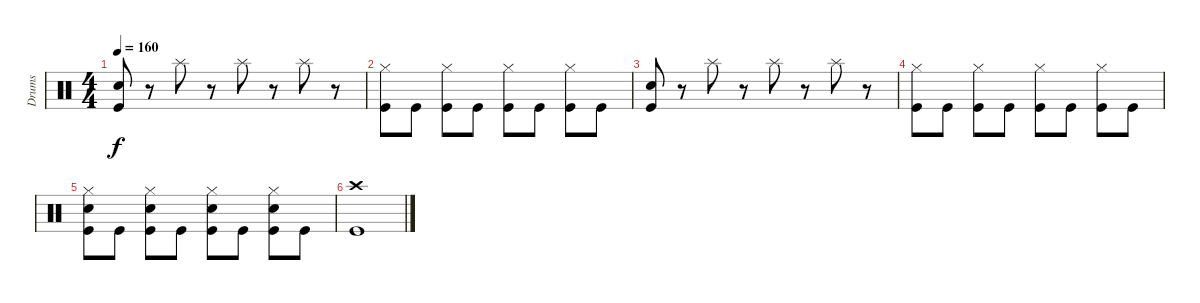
\track ("Drums" "Drums") {instrument percussion}
\staff {score}
\articulation defaults
\ts (4 4)
\tempo 160
\clef neutral
\ks c
("Electric Snare (hit)" "Kick (hit)").8{dy f} r.8 "Splash (hit)".8 r.8 "Splash (hit)".8 r.8 "Splash (hit)".8 r.8 |
("Hi-Hat (closed)" "Kick (hit)").8 "Kick (hit)".8 ("Hi-Hat (closed)" "Kick (hit)").8 "Kick (hit)".8 ("Hi-Hat (closed)" "Kick (hit)").8 "Kick (hit)".8 ("Hi-Hat (closed)" "Kick (hit)").8 "Kick (hit)".8 |
("Electric Snare (hit)" "Kick (hit)").8 r.8 "Splash (hit)".8 r.8 "Splash (hit)".8 r.8 "Splash (hit)".8 r.8 |
("Hi-Hat (closed)" "Kick (hit)").8 "Kick (hit)".8 ("Hi-Hat (closed)" "Kick (hit)").8 "Kick (hit)".8 ("Hi-Hat (closed)" "Kick (hit)").8 "Kick (hit)".8 ("Hi-Hat (closed)" "Kick (hit)").8 "Kick (hit)".8 |
("Hi-Hat (closed)" "Electric Snare (hit)" "Kick (hit)").8 "Kick (hit)".8 ("Hi-Hat (closed)" "Electric Snare (hit)" "Kick (hit)").8 "Kick (hit)".8 ("Hi-Hat (closed)" "Electric Snare (hit)" "Kick (hit)").8 "Kick (hit)".8 ("Hi-Hat (closed)" "Electric Snare (hit)" "Kick (hit)").8 "Kick (hit)".8 |
("Crash high (hit)" "Kick (hit)").1
